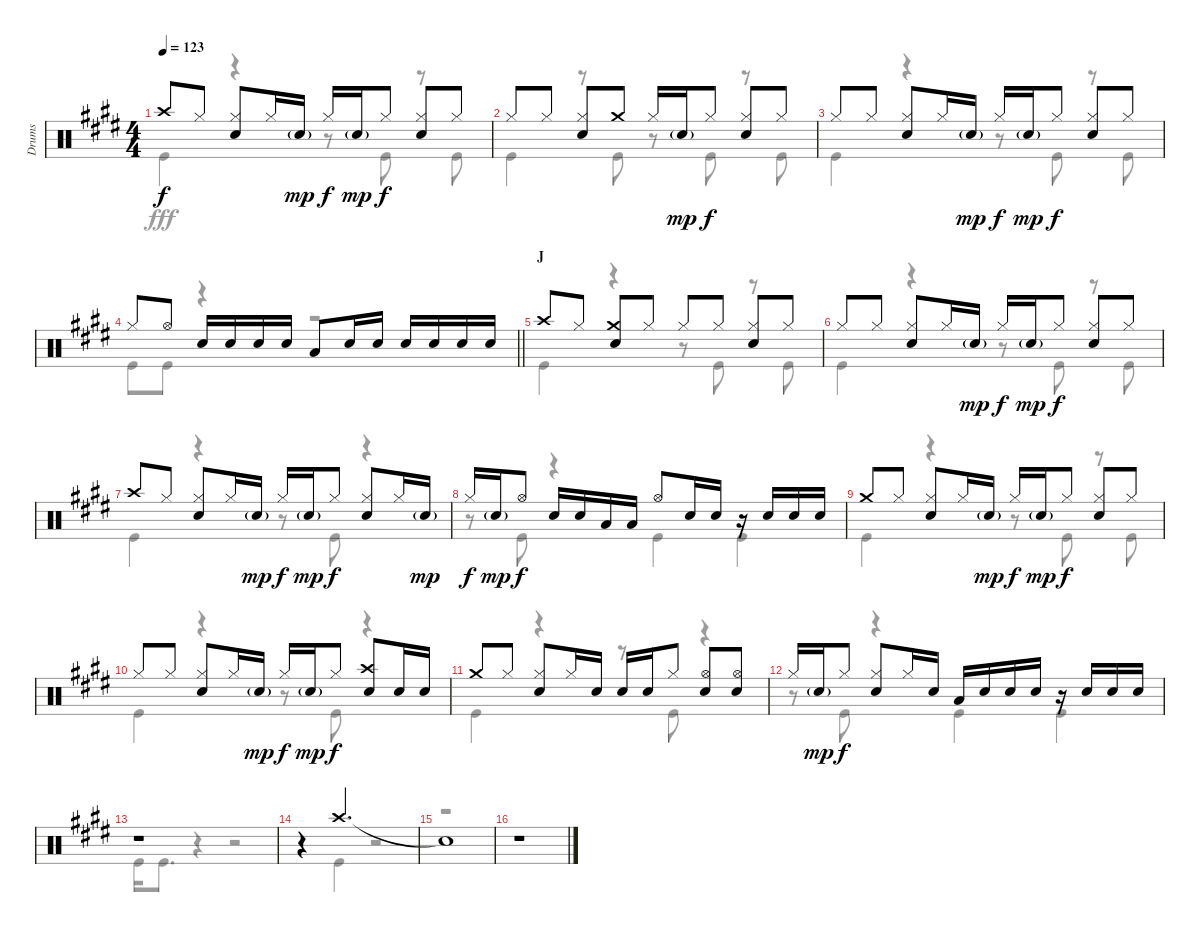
\track ("Drums" "Drums") {instrument percussion}
\staff {score}
\articulation defaults
\voice
\ts (4 4)
\tempo 123
\clef neutral
\ks e "Crash high (hit)".8{dy f} "Hi-Hat (closed)".8
("Hi-Hat (closed)" "Snare (hit) 2").8 "Hi-Hat (closed)".16 "Snare (hit) 2"{g}.16{dy mp} "Hi-Hat (closed)".16{dy f} "Snare (hit) 2"{g}.16{dy mp} "Hi-Hat (closed)".8{dy f} ("Hi-Hat (closed)" "Snare (hit) 2").8 "Hi-Hat (closed)".8 |
"Hi-Hat (closed)".8 "Hi-Hat (closed)".8 ("Hi-Hat (closed)" "Snare (hit) 2").8 "Crash medium (hit)".8 "Hi-Hat (closed)".16 "Snare (hit) 2"{g}.16{dy mp} "Hi-Hat (closed)".8{dy f} ("Hi-Hat (closed)" "Snare (hit) 2").8 "Hi-Hat (closed)".8 |
"Hi-Hat (closed)".8 "Hi-Hat (closed)".8 ("Hi-Hat (closed)" "Snare (hit) 2").8 "Hi-Hat (closed)".16 "Snare (hit) 2"{g}.16{dy mp} "Hi-Hat (closed)".16{dy f} "Snare (hit) 2"{g}.16{dy mp} "Hi-Hat (closed)".8{dy f} ("Hi-Hat (closed)" "Snare (hit) 2").8 "Hi-Hat (closed)".8 |
\barLineRight lightlight "Hi-Hat (closed)".8 "Hi-Hat (open)".8 "Snare (hit) 2".16 "Snare (hit) 2".16 "Snare (hit) 2".16 "Snare (hit) 2".16 "Low Tom (hit)".8 "Snare (hit) 2".16 "Snare (hit) 2".16 "Snare (hit) 2".16 "Snare (hit) 2".16 "Snare (hit) 2".16 "Snare (hit) 2".16
|
\section ("" "J")
"Crash high (hit)".8 "Hi-Hat (closed)".8 ("Crash medium (hit)" "Snare (hit) 2").8 "Hi-Hat (closed)".8 "Hi-Hat (closed)".8 "Hi-Hat (closed)".8 ("Hi-Hat (closed)" "Snare (hit) 2").8 "Hi-Hat (closed)".8 |
"Hi-Hat (closed)".8 "Hi-Hat (closed)".8 ("Hi-Hat (closed)" "Snare (hit) 2").8 "Hi-Hat (closed)".16 "Snare (hit) 2"{g}.16{dy mp} "Hi-Hat (closed)".16{dy f} "Snare (hit) 2"{g}.16{dy mp} "Hi-Hat (closed)".8{dy f} ("Hi-Hat (closed)" "Snare (hit) 2").8 "Hi-Hat (closed)".8 |
"Crash high (hit)".8 "Hi-Hat (closed)".8 ("Hi-Hat (closed)" "Snare (hit) 2").8 "Hi-Hat (closed)".16 "Snare (hit) 2"{g}.16{dy mp} "Hi-Hat (closed)".16{dy f} "Snare (hit) 2"{g}.16{dy mp} "Hi-Hat (closed)".8{dy f} ("Hi-Hat (closed)" "Snare (hit) 2").8 "Hi-Hat (closed)".16 "Snare (hit) 2"{g}.16{dy mp} |
"Hi-Hat (closed)".16{dy f} "Snare (hit) 2"{g}.16{dy mp} "Hi-Hat (open)".8{dy f} "Snare (hit) 2".16 "Snare (hit) 2".16 "Low Tom (hit)".16 "Low Tom (hit)".16 "Hi-Hat (open)".8 "Snare (hit) 2".16 "Snare (hit) 2".16 r.16 "Snare (hit) 2".16 "Snare (hit) 2".16 "Snare (hit) 2".16 |
"Crash medium (hit)".8 "Hi-Hat (closed)".8 ("Hi-Hat (closed)" "Snare (hit) 2").8 "Hi-Hat (closed)".16 "Snare (hit) 2"{g}.16{dy mp} "Hi-Hat (closed)".16{dy f} "Snare (hit) 2"{g}.16{dy mp} "Hi-Hat (closed)".8{dy f} ("Hi-Hat (closed)" "Snare (hit) 2").8 "Hi-Hat (closed)".8 |
"Hi-Hat (closed)".8 "Hi-Hat (closed)".8 ("Hi-Hat (closed)" "Snare (hit) 2").8 "Hi-Hat (closed)".16 "Snare (hit) 2"{g}.16{dy mp} "Hi-Hat (closed)".16{dy f} "Snare (hit) 2"{g}.16{dy mp} "Hi-Hat (closed)".8{dy f} ("Crash high (hit)" "Snare (hit) 2").8 "Snare (hit) 2".16 "Snare (hit) 2".16 |
"Crash medium (hit)".8 "Hi-Hat (closed)".8 ("Hi-Hat (closed)" "Snare (hit) 2").8 "Hi-Hat (closed)".16 "Snare (hit) 2".16 "Snare (hit) 2".16 "Snare (hit) 2".16 "Hi-Hat (closed)".8 ("Hi-Hat (open)" "Snare (hit) 2").8 ("Hi-Hat (open)" "Snare (hit) 2").8 |
"Hi-Hat (closed)".16 "Snare (hit) 2"{g}.16{dy mp} "Hi-Hat (closed)".8{dy f} ("Hi-Hat (closed)" "Snare (hit) 2").8 "Hi-Hat (closed)".16 "Snare (hit) 2".16 "Low Tom (hit)".16 "Snare (hit) 2".16 "Snare (hit) 2".16 "Snare (hit) 2".16 r.16 "Snare (hit) 2".16 "Snare (hit) 2".16 "Snare (hit) 2".16 |
r.1 |
r.4 "Crash high (hit)".2{d} |
"Snare (hit)"{t}.1 |
r.1
\voice
\clef neutral
\ottava regular
\simile none
\ks e "Kick (hit)".4{dy fff}
r.4 r.8 "Kick (hit)".8 r.8 "Kick (hit)".8 |
"Kick (hit)".4 r.8 "Kick (hit)".8 r.8 "Kick (hit)".8 r.8 "Kick (hit)".8 |
"Kick (hit)".4 r.4 r.8 "Kick (hit)".8 r.8 "Kick (hit)".8 |
\barLineRight lightlight "Kick (hit)".8 "Kick (hit)".8
r.4 r.2 |
"Kick (hit)".4 r.4 r.8 "Kick (hit)".8 r.8 "Kick (hit)".8 |
"Kick (hit)".4 r.4 r.8 "Kick (hit)".8 r.8 "Kick (hit)".8 |
"Kick (hit)".4 r.4 r.8 "Kick (hit)".8 r.4 |
r.8 "Kick (hit)".8 r.4 "Kick (hit)".4 "Kick (hit)".4 |
"Kick (hit)".4 r.4 r.8 "Kick (hit)".8 r.8 "Kick (hit)".8 |
"Kick (hit)".4 r.4 r.8 "Kick (hit)".8 r.4 |
"Kick (hit)".4 r.4 r.8 "Kick (hit)".8 r.4 |
r.8 "Kick (hit)".8 r.4 "Kick (hit)".4 "Kick (hit)".4 |
"Kick (hit)".16 "Kick (hit)".8{d} r.4 r.2 |
r.4 "Kick (hit)".4 r.2 |
r.1 |
r.1
